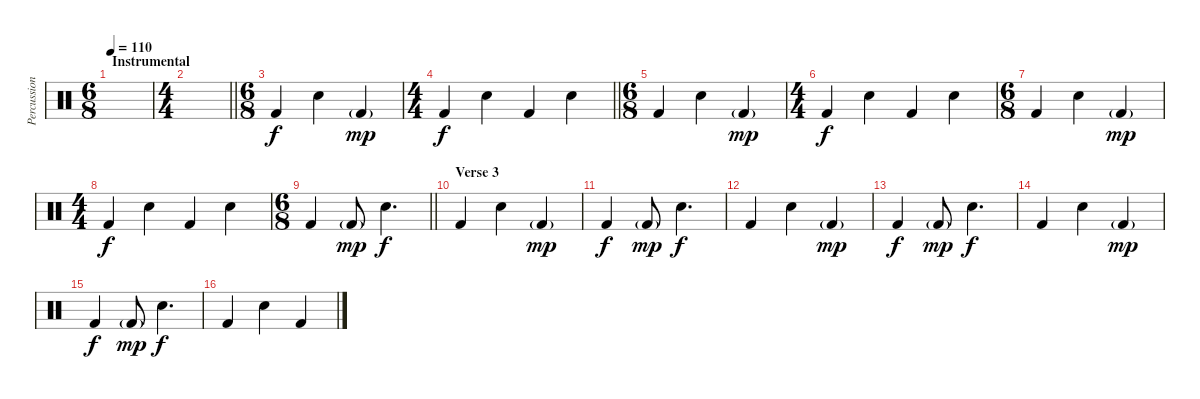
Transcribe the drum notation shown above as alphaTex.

\track ("Percussion" "Percussion") {instrument percussion}
\staff {score}
\articulation defaults
\ts (6 8)
\section ("" "Instrumental")
\tempo 110
\clef neutral
\ks c
|
\ts (4 4)
\barLineRight lightlight
|
\ts (6 8)
"Kick (hit) 2".4 "Snare (hit) 2".4 "Kick (hit) 2"{g}.4{dy mp} |
\ts (4 4)
\barLineRight lightlight "Kick (hit) 2".4{dy f} "Snare (hit) 2".4 "Kick (hit) 2".4 "Snare (hit) 2".4
|
\ts (6 8)
"Kick (hit) 2".4 "Snare (hit) 2".4 "Kick (hit) 2"{g}.4{dy mp} |
\ts (4 4)
"Kick (hit) 2".4{dy f} "Snare (hit) 2".4 "Kick (hit) 2".4 "Snare (hit) 2".4 |
\ts (6 8)
"Kick (hit) 2".4 "Snare (hit) 2".4 "Kick (hit) 2"{g}.4{dy mp} |
\ts (4 4)
"Kick (hit) 2".4{dy f} "Snare (hit) 2".4 "Kick (hit) 2".4 "Snare (hit) 2".4 |
\ts (6 8)
\barLineRight lightlight "Kick (hit) 2".4 "Kick (hit) 2"{g}.8{dy mp} "Snare (hit) 2".4{d dy f}
|
\section ("" "Verse 3")
"Kick (hit) 2".4 "Snare (hit) 2".4 "Kick (hit) 2"{g}.4{dy mp} |
"Kick (hit) 2".4{dy f} "Kick (hit) 2"{g}.8{dy mp} "Snare (hit) 2".4{d dy f} |
"Kick (hit) 2".4 "Snare (hit) 2".4 "Kick (hit) 2"{g}.4{dy mp} |
"Kick (hit) 2".4{dy f} "Kick (hit) 2"{g}.8{dy mp} "Snare (hit) 2".4{d dy f} |
"Kick (hit) 2".4 "Snare (hit) 2".4 "Kick (hit) 2"{g}.4{dy mp} |
"Kick (hit) 2".4{dy f} "Kick (hit) 2"{g}.8{dy mp} "Snare (hit) 2".4{d dy f} |
"Kick (hit) 2".4 "Snare (hit) 2".4 "Kick (hit) 2".4
